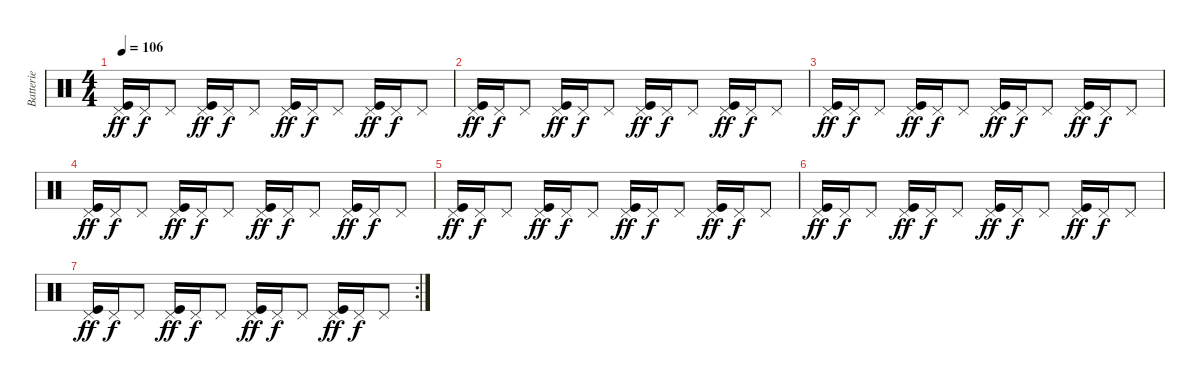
\track ("Batterie" "Batterie") {instrument percussion}
\staff {score}
\articulation defaults
\ts (4 4)
\tempo 106
\clef neutral
\ks c
("Pedal Hi-Hat (hit)" "Kick (hit)").16{dy ff} "Pedal Hi-Hat (hit)".16{dy f} "Pedal Hi-Hat (hit)".8 ("Pedal Hi-Hat (hit)" "Kick (hit)").16{dy ff} "Pedal Hi-Hat (hit)".16{dy f} "Pedal Hi-Hat (hit)".8 ("Pedal Hi-Hat (hit)" "Kick (hit)").16{dy ff} "Pedal Hi-Hat (hit)".16{dy f} "Pedal Hi-Hat (hit)".8 ("Pedal Hi-Hat (hit)" "Kick (hit)").16{dy ff} "Pedal Hi-Hat (hit)".16{dy f} "Pedal Hi-Hat (hit)".8 |
("Pedal Hi-Hat (hit)" "Kick (hit)").16{dy ff} "Pedal Hi-Hat (hit)".16{dy f} "Pedal Hi-Hat (hit)".8 ("Pedal Hi-Hat (hit)" "Kick (hit)").16{dy ff} "Pedal Hi-Hat (hit)".16{dy f} "Pedal Hi-Hat (hit)".8 ("Pedal Hi-Hat (hit)" "Kick (hit)").16{dy ff} "Pedal Hi-Hat (hit)".16{dy f} "Pedal Hi-Hat (hit)".8 ("Pedal Hi-Hat (hit)" "Kick (hit)").16{dy ff} "Pedal Hi-Hat (hit)".16{dy f} "Pedal Hi-Hat (hit)".8 |
("Pedal Hi-Hat (hit)" "Kick (hit)").16{dy ff} "Pedal Hi-Hat (hit)".16{dy f} "Pedal Hi-Hat (hit)".8 ("Pedal Hi-Hat (hit)" "Kick (hit)").16{dy ff} "Pedal Hi-Hat (hit)".16{dy f} "Pedal Hi-Hat (hit)".8 ("Pedal Hi-Hat (hit)" "Kick (hit)").16{dy ff} "Pedal Hi-Hat (hit)".16{dy f} "Pedal Hi-Hat (hit)".8 ("Pedal Hi-Hat (hit)" "Kick (hit)").16{dy ff} "Pedal Hi-Hat (hit)".16{dy f} "Pedal Hi-Hat (hit)".8 |
("Pedal Hi-Hat (hit)" "Kick (hit)").16{dy ff} "Pedal Hi-Hat (hit)".16{dy f} "Pedal Hi-Hat (hit)".8 ("Pedal Hi-Hat (hit)" "Kick (hit)").16{dy ff} "Pedal Hi-Hat (hit)".16{dy f} "Pedal Hi-Hat (hit)".8 ("Pedal Hi-Hat (hit)" "Kick (hit)").16{dy ff} "Pedal Hi-Hat (hit)".16{dy f} "Pedal Hi-Hat (hit)".8 ("Pedal Hi-Hat (hit)" "Kick (hit)").16{dy ff} "Pedal Hi-Hat (hit)".16{dy f} "Pedal Hi-Hat (hit)".8 |
("Pedal Hi-Hat (hit)" "Kick (hit)").16{dy ff} "Pedal Hi-Hat (hit)".16{dy f} "Pedal Hi-Hat (hit)".8 ("Pedal Hi-Hat (hit)" "Kick (hit)").16{dy ff} "Pedal Hi-Hat (hit)".16{dy f} "Pedal Hi-Hat (hit)".8 ("Pedal Hi-Hat (hit)" "Kick (hit)").16{dy ff} "Pedal Hi-Hat (hit)".16{dy f} "Pedal Hi-Hat (hit)".8 ("Pedal Hi-Hat (hit)" "Kick (hit)").16{dy ff} "Pedal Hi-Hat (hit)".16{dy f} "Pedal Hi-Hat (hit)".8 |
("Pedal Hi-Hat (hit)" "Kick (hit)").16{dy ff} "Pedal Hi-Hat (hit)".16{dy f} "Pedal Hi-Hat (hit)".8 ("Pedal Hi-Hat (hit)" "Kick (hit)").16{dy ff} "Pedal Hi-Hat (hit)".16{dy f} "Pedal Hi-Hat (hit)".8 ("Pedal Hi-Hat (hit)" "Kick (hit)").16{dy ff} "Pedal Hi-Hat (hit)".16{dy f} "Pedal Hi-Hat (hit)".8 ("Pedal Hi-Hat (hit)" "Kick (hit)").16{dy ff} "Pedal Hi-Hat (hit)".16{dy f} "Pedal Hi-Hat (hit)".8 |
\rc 2
("Pedal Hi-Hat (hit)" "Kick (hit)").16{dy ff} "Pedal Hi-Hat (hit)".16{dy f} "Pedal Hi-Hat (hit)".8 ("Pedal Hi-Hat (hit)" "Kick (hit)").16{dy ff} "Pedal Hi-Hat (hit)".16{dy f} "Pedal Hi-Hat (hit)".8 ("Pedal Hi-Hat (hit)" "Kick (hit)").16{dy ff} "Pedal Hi-Hat (hit)".16{dy f} "Pedal Hi-Hat (hit)".8 ("Pedal Hi-Hat (hit)" "Kick (hit)").16{dy ff} "Pedal Hi-Hat (hit)".16{dy f} "Pedal Hi-Hat (hit)".8
